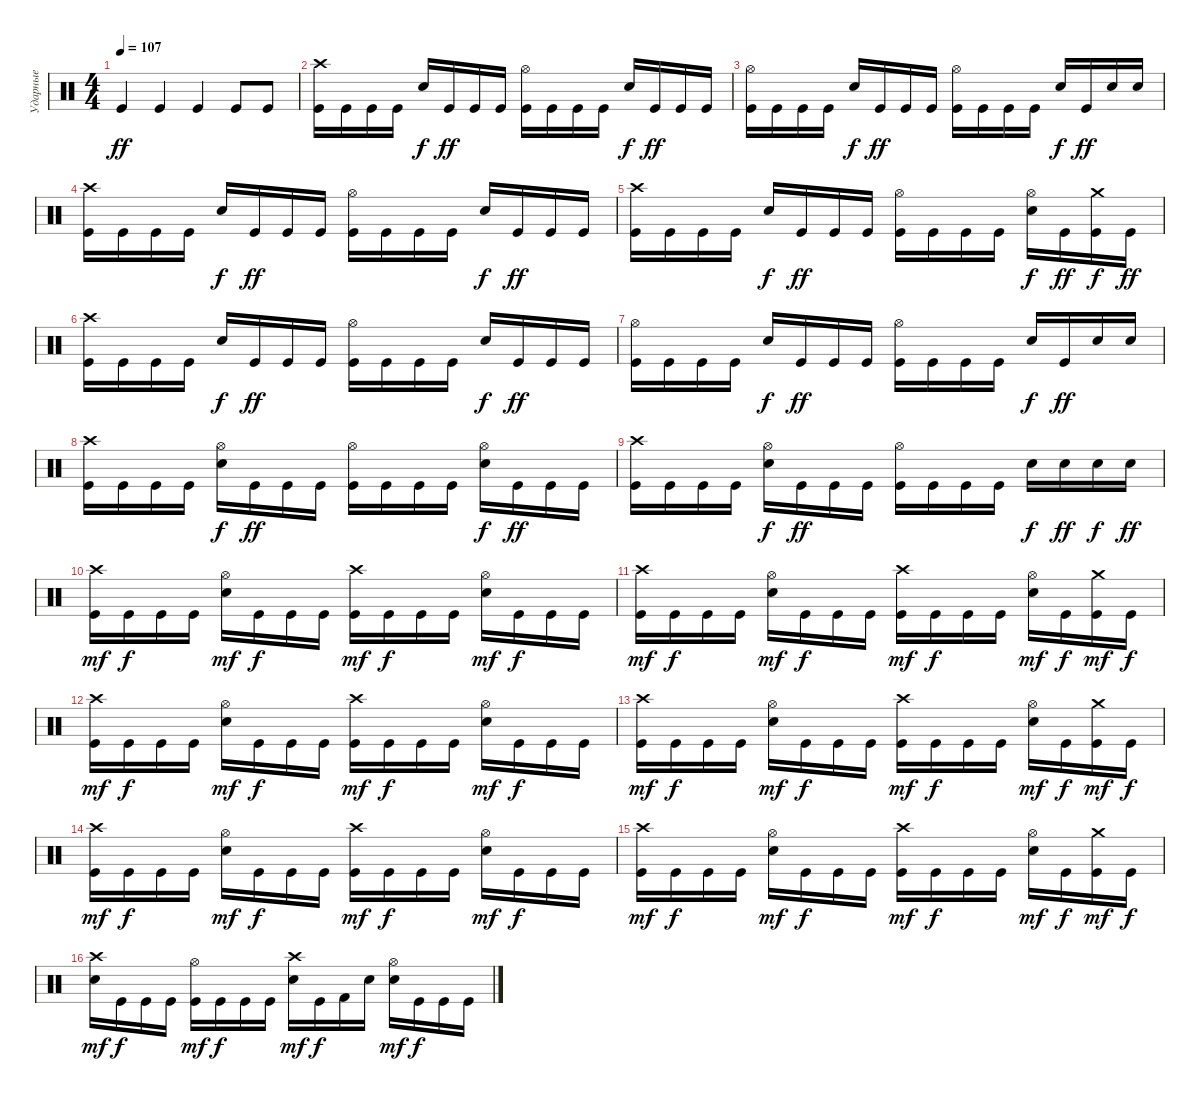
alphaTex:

\track ("Ударные" "Ударные") {instrument percussion}
\staff {score}
\articulation defaults
\ts (4 4)
\tempo 107
\clef neutral
\ks c "Kick (hit)".4{dy ff} "Kick (hit)".4 "Kick (hit)".4 "Kick (hit)".8 "Kick (hit)".8
|
("Crash high (hit)" "Kick (hit)").16 "Kick (hit)".16 "Kick (hit)".16 "Kick (hit)".16 "Electric Snare (hit)".16{dy f} "Kick (hit)".16{dy ff} "Kick (hit)".16 "Kick (hit)".16 ("Hi-Hat (open)" "Kick (hit)").16 "Kick (hit)".16 "Kick (hit)".16 "Kick (hit)".16 "Electric Snare (hit)".16{dy f} "Kick (hit)".16{dy ff} "Kick (hit)".16 "Kick (hit)".16 |
("Hi-Hat (open)" "Kick (hit)").16 "Kick (hit)".16 "Kick (hit)".16 "Kick (hit)".16 "Electric Snare (hit)".16{dy f} "Kick (hit)".16{dy ff} "Kick (hit)".16 "Kick (hit)".16 ("Hi-Hat (open)" "Kick (hit)").16 "Kick (hit)".16 "Kick (hit)".16 "Kick (hit)".16 "Electric Snare (hit)".16{dy f} "Kick (hit)".16{dy ff} "Electric Snare (hit)".16 "Electric Snare (hit)".16 |
("Crash high (hit)" "Kick (hit)").16 "Kick (hit)".16 "Kick (hit)".16 "Kick (hit)".16 "Electric Snare (hit)".16{dy f} "Kick (hit)".16{dy ff} "Kick (hit)".16 "Kick (hit)".16 ("Hi-Hat (open)" "Kick (hit)").16 "Kick (hit)".16 "Kick (hit)".16 "Kick (hit)".16 "Electric Snare (hit)".16{dy f} "Kick (hit)".16{dy ff} "Kick (hit)".16 "Kick (hit)".16 |
("Crash high (hit)" "Kick (hit)").16 "Kick (hit)".16 "Kick (hit)".16 "Kick (hit)".16 "Electric Snare (hit)".16{dy f} "Kick (hit)".16{dy ff} "Kick (hit)".16 "Kick (hit)".16 ("Hi-Hat (open)" "Kick (hit)").16 "Kick (hit)".16 "Kick (hit)".16 "Kick (hit)".16 ("Hi-Hat (open)" "Electric Snare (hit)").16{dy f} "Kick (hit)".16{dy ff} ("Crash medium (hit)" "Kick (hit)").16{dy f} "Kick (hit)".16{dy ff} |
("Crash high (hit)" "Kick (hit)").16 "Kick (hit)".16 "Kick (hit)".16 "Kick (hit)".16 "Electric Snare (hit)".16{dy f} "Kick (hit)".16{dy ff} "Kick (hit)".16 "Kick (hit)".16 ("Hi-Hat (open)" "Kick (hit)").16 "Kick (hit)".16 "Kick (hit)".16 "Kick (hit)".16 "Electric Snare (hit)".16{dy f} "Kick (hit)".16{dy ff} "Kick (hit)".16 "Kick (hit)".16 |
("Hi-Hat (open)" "Kick (hit)").16 "Kick (hit)".16 "Kick (hit)".16 "Kick (hit)".16 "Electric Snare (hit)".16{dy f} "Kick (hit)".16{dy ff} "Kick (hit)".16 "Kick (hit)".16 ("Hi-Hat (open)" "Kick (hit)").16 "Kick (hit)".16 "Kick (hit)".16 "Kick (hit)".16 "Electric Snare (hit)".16{dy f} "Kick (hit)".16{dy ff} "Electric Snare (hit)".16 "Electric Snare (hit)".16 |
("Crash high (hit)" "Kick (hit)").16 "Kick (hit)".16 "Kick (hit)".16 "Kick (hit)".16 ("Hi-Hat (open)" "Electric Snare (hit)").16{dy f} "Kick (hit)".16{dy ff} "Kick (hit)".16 "Kick (hit)".16 ("Hi-Hat (open)" "Kick (hit)").16 "Kick (hit)".16 "Kick (hit)".16 "Kick (hit)".16 ("Hi-Hat (open)" "Electric Snare (hit)").16{dy f} "Kick (hit)".16{dy ff} "Kick (hit)".16 "Kick (hit)".16 |
("Crash high (hit)" "Kick (hit)").16 "Kick (hit)".16 "Kick (hit)".16 "Kick (hit)".16 ("Hi-Hat (open)" "Electric Snare (hit)").16{dy f} "Kick (hit)".16{dy ff} "Kick (hit)".16 "Kick (hit)".16 ("Hi-Hat (open)" "Kick (hit)").16 "Kick (hit)".16 "Kick (hit)".16 "Kick (hit)".16 "Electric Snare (hit)".16{dy f} "Electric Snare (hit)".16{dy ff} "Electric Snare (hit)".16{dy f} "Electric Snare (hit)".16{dy ff} |
("Crash high (hit)" "Kick (hit)").16{dy mf} "Kick (hit)".16{dy f} "Kick (hit)".16 "Kick (hit)".16 ("Hi-Hat (open)" "Electric Snare (hit)").16{dy mf} "Kick (hit)".16{dy f} "Kick (hit)".16 "Kick (hit)".16 ("Crash high (hit)" "Kick (hit)").16{dy mf} "Kick (hit)".16{dy f} "Kick (hit)".16 "Kick (hit)".16 ("Hi-Hat (open)" "Electric Snare (hit)").16{dy mf} "Kick (hit)".16{dy f} "Kick (hit)".16 "Kick (hit)".16 |
("Crash high (hit)" "Kick (hit)").16{dy mf} "Kick (hit)".16{dy f} "Kick (hit)".16 "Kick (hit)".16 ("Hi-Hat (open)" "Electric Snare (hit)").16{dy mf} "Kick (hit)".16{dy f} "Kick (hit)".16 "Kick (hit)".16 ("Crash high (hit)" "Kick (hit)").16{dy mf} "Kick (hit)".16{dy f} "Kick (hit)".16 "Kick (hit)".16 ("Hi-Hat (open)" "Electric Snare (hit)").16{dy mf} "Kick (hit)".16{dy f} ("Crash medium (hit)" "Kick (hit)").16{dy mf} "Kick (hit)".16{dy f} |
("Crash high (hit)" "Kick (hit)").16{dy mf} "Kick (hit)".16{dy f} "Kick (hit)".16 "Kick (hit)".16 ("Hi-Hat (open)" "Electric Snare (hit)").16{dy mf} "Kick (hit)".16{dy f} "Kick (hit)".16 "Kick (hit)".16 ("Crash high (hit)" "Kick (hit)").16{dy mf} "Kick (hit)".16{dy f} "Kick (hit)".16 "Kick (hit)".16 ("Hi-Hat (open)" "Electric Snare (hit)").16{dy mf} "Kick (hit)".16{dy f} "Kick (hit)".16 "Kick (hit)".16 |
("Crash high (hit)" "Kick (hit)").16{dy mf} "Kick (hit)".16{dy f} "Kick (hit)".16 "Kick (hit)".16 ("Hi-Hat (open)" "Electric Snare (hit)").16{dy mf} "Kick (hit)".16{dy f} "Kick (hit)".16 "Kick (hit)".16 ("Crash high (hit)" "Kick (hit)").16{dy mf} "Kick (hit)".16{dy f} "Kick (hit)".16 "Kick (hit)".16 ("Hi-Hat (open)" "Electric Snare (hit)").16{dy mf} "Kick (hit)".16{dy f} ("Crash medium (hit)" "Kick (hit)").16{dy mf} "Kick (hit)".16{dy f} |
("Crash high (hit)" "Kick (hit)").16{dy mf} "Kick (hit)".16{dy f} "Kick (hit)".16 "Kick (hit)".16 ("Hi-Hat (open)" "Electric Snare (hit)").16{dy mf} "Kick (hit)".16{dy f} "Kick (hit)".16 "Kick (hit)".16 ("Crash high (hit)" "Kick (hit)").16{dy mf} "Kick (hit)".16{dy f} "Kick (hit)".16 "Kick (hit)".16 ("Hi-Hat (open)" "Electric Snare (hit)").16{dy mf} "Kick (hit)".16{dy f} "Kick (hit)".16 "Kick (hit)".16 |
("Crash high (hit)" "Kick (hit)").16{dy mf} "Kick (hit)".16{dy f} "Kick (hit)".16 "Kick (hit)".16 ("Hi-Hat (open)" "Electric Snare (hit)").16{dy mf} "Kick (hit)".16{dy f} "Kick (hit)".16 "Kick (hit)".16 ("Crash high (hit)" "Kick (hit)").16{dy mf} "Kick (hit)".16{dy f} "Kick (hit)".16 "Kick (hit)".16 ("Hi-Hat (open)" "Electric Snare (hit)").16{dy mf} "Kick (hit)".16{dy f} ("Crash medium (hit)" "Kick (hit)").16{dy mf} "Kick (hit)".16{dy f} |
("Crash high (hit)" "Electric Snare (hit)").16{dy mf} "Kick (hit)".16{dy f} "Kick (hit)".16 "Kick (hit)".16 ("Hi-Hat (open)" "Kick (hit)").16{dy mf} "Kick (hit)".16{dy f} "Kick (hit)".16 "Kick (hit)".16 ("Crash high (hit)" "Electric Snare (hit)").16{dy mf} "Kick (hit)".16{dy f} "Kick (hit) 2".16 "Electric Snare (hit)".16 ("Hi-Hat (open)" "Electric Snare (hit)").16{dy mf} "Kick (hit)".16{dy f} "Kick (hit)".16 "Kick (hit)".16
